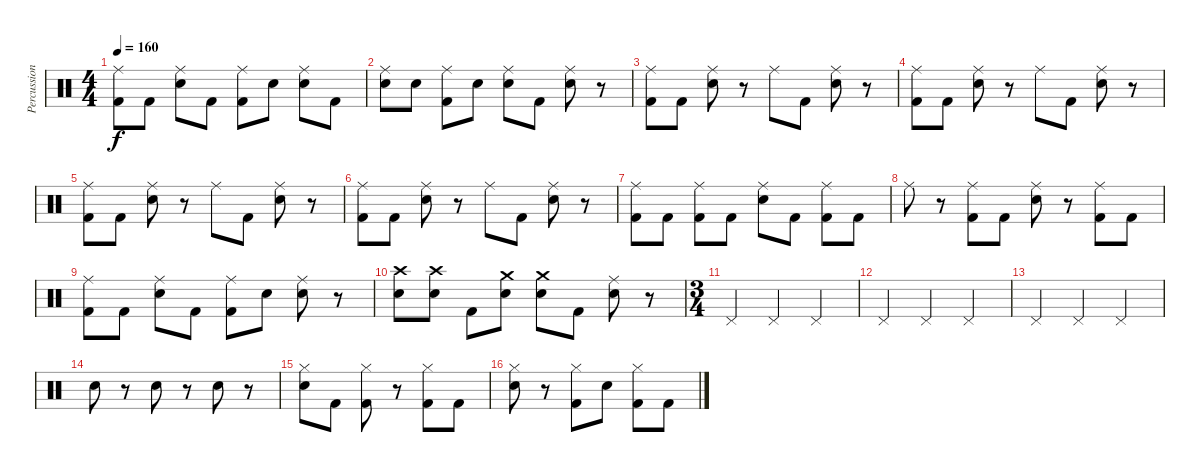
\track ("Percussion" "Percussion") {instrument percussion}
\staff {score}
\articulation defaults
\ts (4 4)
\tempo 160
\clef neutral
\ks c
("Ride (middle)" "Kick (hit) 2").8{dy f} "Kick (hit) 2".8 ("Ride (middle)" "Electric Snare (hit)").8 "Kick (hit) 2".8 ("Ride (middle)" "Kick (hit) 2").8 "Electric Snare (hit)".8 ("Ride (middle)" "Electric Snare (hit)").8 "Kick (hit) 2".8 |
("Ride (middle)" "Electric Snare (hit)").8 "Electric Snare (hit)".8 ("Ride (middle)" "Kick (hit) 2").8 "Electric Snare (hit)".8 ("Ride (middle)" "Electric Snare (hit)").8 "Kick (hit) 2".8 ("Ride (middle)" "Electric Snare (hit)").8 r.8 |
("Ride (middle)" "Kick (hit) 2").8 "Kick (hit) 2".8 ("Ride (middle)" "Electric Snare (hit)").8 r.8 "Ride (middle)".8 "Kick (hit) 2".8 ("Ride (middle)" "Electric Snare (hit)").8 r.8 |
("Ride (middle)" "Kick (hit) 2").8 "Kick (hit) 2".8 ("Ride (middle)" "Electric Snare (hit)").8 r.8 "Ride (middle)".8 "Kick (hit) 2".8 ("Ride (middle)" "Electric Snare (hit)").8 r.8 |
("Ride (middle)" "Kick (hit) 2").8 "Kick (hit) 2".8 ("Ride (middle)" "Electric Snare (hit)").8 r.8 "Ride (middle)".8 "Kick (hit) 2".8 ("Ride (middle)" "Electric Snare (hit)").8 r.8 |
("Ride (middle)" "Kick (hit) 2").8 "Kick (hit) 2".8 ("Ride (middle)" "Electric Snare (hit)").8 r.8 "Ride (middle)".8 "Kick (hit) 2".8 ("Ride (middle)" "Electric Snare (hit)").8 r.8 |
("Ride (middle)" "Kick (hit) 2").8 "Kick (hit) 2".8 ("Ride (middle)" "Kick (hit) 2").8 "Kick (hit) 2".8 ("Ride (middle)" "Electric Snare (hit)").8 "Kick (hit) 2".8 ("Ride (middle)" "Kick (hit) 2").8 "Kick (hit) 2".8 |
"Ride (middle)".8 r.8 ("Ride (middle)" "Kick (hit) 2").8 "Kick (hit) 2".8 ("Ride (middle)" "Electric Snare (hit)").8 r.8 ("Ride (middle)" "Kick (hit) 2").8 "Kick (hit) 2".8 |
("Ride (middle)" "Kick (hit) 2").8 "Kick (hit) 2".8 ("Ride (middle)" "Electric Snare (hit)").8 "Kick (hit) 2".8 ("Ride (middle)" "Kick (hit) 2").8 "Electric Snare (hit)".8 ("Ride (middle)" "Electric Snare (hit)").8 r.8 |
("Crash high (hit)" "Electric Snare (hit)").8 ("Crash high (hit)" "Electric Snare (hit)").8 "Kick (hit) 2".8 ("Crash medium (hit)" "Electric Snare (hit)").8 ("Crash medium (hit)" "Electric Snare (hit)").8 "Kick (hit) 2".8 ("Ride (middle)" "Electric Snare (hit)").8 r.8 |
\ts (3 4)
"Pedal Hi-Hat (hit)".4 "Pedal Hi-Hat (hit)".4 "Pedal Hi-Hat (hit)".4 |
"Pedal Hi-Hat (hit)".4 "Pedal Hi-Hat (hit)".4 "Pedal Hi-Hat (hit)".4 |
"Pedal Hi-Hat (hit)".4 "Pedal Hi-Hat (hit)".4 "Pedal Hi-Hat (hit)".4 |
"Electric Snare (hit)".8 r.8 "Electric Snare (hit)".8 r.8 "Electric Snare (hit)".8 r.8 |
("Hi-Hat (closed)" "Electric Snare (hit)").8 "Kick (hit) 2".8 ("Hi-Hat (closed)" "Kick (hit) 2").8 r.8 ("Hi-Hat (closed)" "Kick (hit) 2").8 "Kick (hit) 2".8 |
("Hi-Hat (closed)" "Electric Snare (hit)").8 r.8 ("Hi-Hat (closed)" "Kick (hit) 2").8 "Electric Snare (hit)".8 ("Hi-Hat (closed)" "Kick (hit) 2").8 "Kick (hit) 2".8
